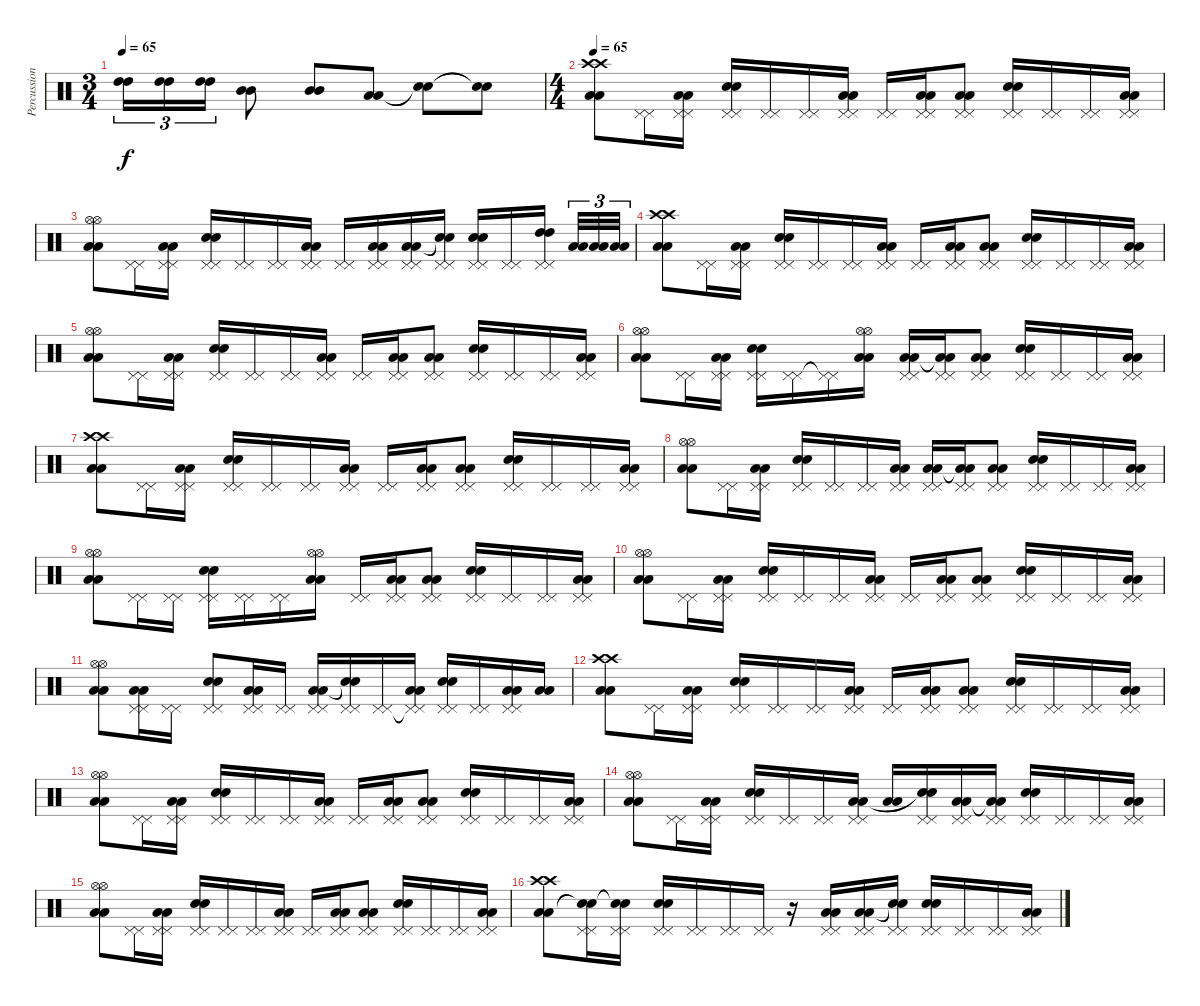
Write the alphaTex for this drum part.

\track ("Percussions" "Percussion") {instrument percussion}
\staff {score}
\articulation defaults
\ts (3 4)
\tempo 65
\tempo 130
\tempo 65
\clef neutral
\ks c
("High Tom (hit)" "High Tom (hit)").16{tu (3 2) dy f} ("High Tom (hit)" "High Tom (hit)").16{tu (3 2)} ("High Tom (hit)" "High Tom (hit)").16{tu (3 2)} ("Mid Tom (hit)" "Mid Tom (hit)").8 ("Mid Tom (hit)" "Mid Tom (hit)").8 ("Low Tom (hit)" "Low Tom (hit)").8 ("Snare (hit)"{t} "Snare (hit)"{t}).8 ("Snare (hit)"{t} "Snare (hit)"{t}).8 |
\ts (4 4)
\tempo 65
("Crash high (hit)" "Crash high (hit)" "Low Floor Tom (hit)" "Low Floor Tom (hit)").8 ("Pedal Hi-Hat (hit)" "Pedal Hi-Hat (hit)").16 ("Pedal Hi-Hat (hit)" "Pedal Hi-Hat (hit)" "Low Floor Tom (hit)" "Low Floor Tom (hit)").16 ("Pedal Hi-Hat (hit)" "Pedal Hi-Hat (hit)" "Snare (hit) 2" "Snare (hit) 2").16 ("Pedal Hi-Hat (hit)" "Pedal Hi-Hat (hit)").16 ("Pedal Hi-Hat (hit)" "Pedal Hi-Hat (hit)").16 ("Pedal Hi-Hat (hit)" "Pedal Hi-Hat (hit)" "Low Floor Tom (hit)" "Low Floor Tom (hit)").16 ("Pedal Hi-Hat (hit)" "Pedal Hi-Hat (hit)").16 ("Pedal Hi-Hat (hit)" "Pedal Hi-Hat (hit)" "Low Floor Tom (hit)" "Low Floor Tom (hit)").16 ("Pedal Hi-Hat (hit)" "Pedal Hi-Hat (hit)" "Low Floor Tom (hit)" "Low Floor Tom (hit)").8 ("Pedal Hi-Hat (hit)" "Pedal Hi-Hat (hit)" "Snare (hit) 2" "Snare (hit) 2").16 ("Pedal Hi-Hat (hit)" "Pedal Hi-Hat (hit)").16 ("Pedal Hi-Hat (hit)" "Pedal Hi-Hat (hit)").16 ("Pedal Hi-Hat (hit)" "Pedal Hi-Hat (hit)" "Low Floor Tom (hit)" "Low Floor Tom (hit)").16 |
("Hi-Hat (open)" "Hi-Hat (open)" "Low Floor Tom (hit)" "Low Floor Tom (hit)").8 ("Pedal Hi-Hat (hit)" "Pedal Hi-Hat (hit)").16 ("Pedal Hi-Hat (hit)" "Pedal Hi-Hat (hit)" "Low Floor Tom (hit)" "Low Floor Tom (hit)").16 ("Pedal Hi-Hat (hit)" "Pedal Hi-Hat (hit)" "Snare (hit) 2" "Snare (hit) 2").16 ("Pedal Hi-Hat (hit)" "Pedal Hi-Hat (hit)").16 ("Pedal Hi-Hat (hit)" "Pedal Hi-Hat (hit)").16 ("Pedal Hi-Hat (hit)" "Pedal Hi-Hat (hit)" "Low Floor Tom (hit)" "Low Floor Tom (hit)").16 ("Pedal Hi-Hat (hit)" "Pedal Hi-Hat (hit)").16 ("Pedal Hi-Hat (hit)" "Pedal Hi-Hat (hit)" "Low Floor Tom (hit)" "Low Floor Tom (hit)").16 ("Pedal Hi-Hat (hit)" "Pedal Hi-Hat (hit)" "Low Floor Tom (hit)" "Low Floor Tom (hit)").16 ("Pedal Hi-Hat (hit)" "Pedal Hi-Hat (hit)" "Snare (hit)"{t} "Snare (hit)"{t}).16 ("Pedal Hi-Hat (hit)" "Pedal Hi-Hat (hit)" "Snare (hit) 2" "Snare (hit) 2").16 ("Pedal Hi-Hat (hit)" "Pedal Hi-Hat (hit)").16 ("Pedal Hi-Hat (hit)" "Pedal Hi-Hat (hit)" "High Tom (hit)" "High Tom (hit)").16 ("Low Tom (hit)" "Low Tom (hit)").32{tu (3 2)} ("Low Tom (hit)" "Low Tom (hit)").32{tu (3 2)} ("Low Tom (hit)" "Low Tom (hit)").32{tu (3 2)} |
("Crash high (hit)" "Crash high (hit)" "Low Floor Tom (hit)" "Low Floor Tom (hit)").8 ("Pedal Hi-Hat (hit)" "Pedal Hi-Hat (hit)").16 ("Pedal Hi-Hat (hit)" "Pedal Hi-Hat (hit)" "Low Floor Tom (hit)" "Low Floor Tom (hit)").16 ("Pedal Hi-Hat (hit)" "Pedal Hi-Hat (hit)" "Snare (hit) 2" "Snare (hit) 2").16 ("Pedal Hi-Hat (hit)" "Pedal Hi-Hat (hit)").16 ("Pedal Hi-Hat (hit)" "Pedal Hi-Hat (hit)").16 ("Pedal Hi-Hat (hit)" "Pedal Hi-Hat (hit)" "Low Floor Tom (hit)" "Low Floor Tom (hit)").16 ("Pedal Hi-Hat (hit)" "Pedal Hi-Hat (hit)").16 ("Pedal Hi-Hat (hit)" "Pedal Hi-Hat (hit)" "Low Floor Tom (hit)" "Low Floor Tom (hit)").16 ("Pedal Hi-Hat (hit)" "Pedal Hi-Hat (hit)" "Low Floor Tom (hit)" "Low Floor Tom (hit)").8 ("Pedal Hi-Hat (hit)" "Pedal Hi-Hat (hit)" "Snare (hit) 2" "Snare (hit) 2").16 ("Pedal Hi-Hat (hit)" "Pedal Hi-Hat (hit)").16 ("Pedal Hi-Hat (hit)" "Pedal Hi-Hat (hit)").16 ("Pedal Hi-Hat (hit)" "Pedal Hi-Hat (hit)" "Low Floor Tom (hit)" "Low Floor Tom (hit)").16 |
("Hi-Hat (open)" "Hi-Hat (open)" "Low Floor Tom (hit)" "Low Floor Tom (hit)").8 ("Pedal Hi-Hat (hit)" "Pedal Hi-Hat (hit)").16 ("Pedal Hi-Hat (hit)" "Pedal Hi-Hat (hit)" "Low Floor Tom (hit)" "Low Floor Tom (hit)").16 ("Pedal Hi-Hat (hit)" "Pedal Hi-Hat (hit)" "Snare (hit) 2" "Snare (hit) 2").16 ("Pedal Hi-Hat (hit)" "Pedal Hi-Hat (hit)").16 ("Pedal Hi-Hat (hit)" "Pedal Hi-Hat (hit)").16 ("Pedal Hi-Hat (hit)" "Pedal Hi-Hat (hit)" "Low Floor Tom (hit)" "Low Floor Tom (hit)").16 ("Pedal Hi-Hat (hit)" "Pedal Hi-Hat (hit)").16 ("Pedal Hi-Hat (hit)" "Pedal Hi-Hat (hit)" "Low Floor Tom (hit)" "Low Floor Tom (hit)").16 ("Pedal Hi-Hat (hit)" "Pedal Hi-Hat (hit)" "Low Floor Tom (hit)" "Low Floor Tom (hit)").8 ("Pedal Hi-Hat (hit)" "Pedal Hi-Hat (hit)" "Snare (hit) 2" "Snare (hit) 2").16 ("Pedal Hi-Hat (hit)" "Pedal Hi-Hat (hit)").16 ("Pedal Hi-Hat (hit)" "Pedal Hi-Hat (hit)").16 ("Pedal Hi-Hat (hit)" "Pedal Hi-Hat (hit)" "Low Floor Tom (hit)" "Low Floor Tom (hit)").16 |
("Hi-Hat (open)" "Hi-Hat (open)" "Low Floor Tom (hit)" "Low Floor Tom (hit)").8 ("Pedal Hi-Hat (hit)" "Pedal Hi-Hat (hit)").16 ("Pedal Hi-Hat (hit)" "Pedal Hi-Hat (hit)" "Low Floor Tom (hit)" "Low Floor Tom (hit)").16 ("Pedal Hi-Hat (hit)" "Pedal Hi-Hat (hit)" "Snare (hit) 2" "Snare (hit) 2").16 ("Pedal Hi-Hat (hit)" "Pedal Hi-Hat (hit)").16 ("Pedal Hi-Hat (hit)"{t} "Pedal Hi-Hat (hit)"{t}).16 ("Hi-Hat (open)" "Hi-Hat (open)" "Low Floor Tom (hit)" "Low Floor Tom (hit)").16 ("Pedal Hi-Hat (hit)" "Pedal Hi-Hat (hit)" "Low Floor Tom (hit)" "Low Floor Tom (hit)").16 ("Pedal Hi-Hat (hit)" "Pedal Hi-Hat (hit)" "Low Floor Tom (hit)"{t} "Low Floor Tom (hit)"{t}).16 ("Pedal Hi-Hat (hit)" "Pedal Hi-Hat (hit)" "Low Floor Tom (hit)" "Low Floor Tom (hit)").8 ("Pedal Hi-Hat (hit)" "Pedal Hi-Hat (hit)" "Snare (hit) 2" "Snare (hit) 2").16 ("Pedal Hi-Hat (hit)" "Pedal Hi-Hat (hit)").16 ("Pedal Hi-Hat (hit)" "Pedal Hi-Hat (hit)").16 ("Pedal Hi-Hat (hit)" "Pedal Hi-Hat (hit)" "Low Floor Tom (hit)" "Low Floor Tom (hit)").16 |
("Crash high (hit)" "Crash high (hit)" "Low Floor Tom (hit)" "Low Floor Tom (hit)").8 ("Pedal Hi-Hat (hit)" "Pedal Hi-Hat (hit)").16 ("Pedal Hi-Hat (hit)" "Pedal Hi-Hat (hit)" "Low Floor Tom (hit)" "Low Floor Tom (hit)").16 ("Pedal Hi-Hat (hit)" "Pedal Hi-Hat (hit)" "Snare (hit) 2" "Snare (hit) 2").16 ("Pedal Hi-Hat (hit)" "Pedal Hi-Hat (hit)").16 ("Pedal Hi-Hat (hit)" "Pedal Hi-Hat (hit)").16 ("Pedal Hi-Hat (hit)" "Pedal Hi-Hat (hit)" "Low Floor Tom (hit)" "Low Floor Tom (hit)").16 ("Pedal Hi-Hat (hit)" "Pedal Hi-Hat (hit)").16 ("Pedal Hi-Hat (hit)" "Pedal Hi-Hat (hit)" "Low Floor Tom (hit)" "Low Floor Tom (hit)").16 ("Pedal Hi-Hat (hit)" "Pedal Hi-Hat (hit)" "Low Floor Tom (hit)" "Low Floor Tom (hit)").8 ("Pedal Hi-Hat (hit)" "Pedal Hi-Hat (hit)" "Snare (hit) 2" "Snare (hit) 2").16 ("Pedal Hi-Hat (hit)" "Pedal Hi-Hat (hit)").16 ("Pedal Hi-Hat (hit)" "Pedal Hi-Hat (hit)").16 ("Pedal Hi-Hat (hit)" "Pedal Hi-Hat (hit)" "Low Floor Tom (hit)" "Low Floor Tom (hit)").16 |
("Hi-Hat (open)" "Hi-Hat (open)" "Low Floor Tom (hit)" "Low Floor Tom (hit)").8 ("Pedal Hi-Hat (hit)" "Pedal Hi-Hat (hit)").16 ("Pedal Hi-Hat (hit)" "Pedal Hi-Hat (hit)" "Low Floor Tom (hit)" "Low Floor Tom (hit)").16 ("Pedal Hi-Hat (hit)" "Pedal Hi-Hat (hit)" "Snare (hit) 2" "Snare (hit) 2").16 ("Pedal Hi-Hat (hit)" "Pedal Hi-Hat (hit)").16 ("Pedal Hi-Hat (hit)" "Pedal Hi-Hat (hit)").16 ("Pedal Hi-Hat (hit)" "Pedal Hi-Hat (hit)" "Low Floor Tom (hit)" "Low Floor Tom (hit)").16 ("Pedal Hi-Hat (hit)" "Pedal Hi-Hat (hit)" "Low Floor Tom (hit)" "Low Floor Tom (hit)").16 ("Pedal Hi-Hat (hit)" "Pedal Hi-Hat (hit)" "Low Floor Tom (hit)"{t} "Low Floor Tom (hit)"{t}).16 ("Pedal Hi-Hat (hit)" "Pedal Hi-Hat (hit)" "Low Floor Tom (hit)" "Low Floor Tom (hit)").8 ("Pedal Hi-Hat (hit)" "Pedal Hi-Hat (hit)" "Snare (hit) 2" "Snare (hit) 2").16 ("Pedal Hi-Hat (hit)" "Pedal Hi-Hat (hit)").16 ("Pedal Hi-Hat (hit)" "Pedal Hi-Hat (hit)").16 ("Pedal Hi-Hat (hit)" "Pedal Hi-Hat (hit)" "Low Floor Tom (hit)" "Low Floor Tom (hit)").16 |
("Hi-Hat (open)" "Hi-Hat (open)" "Low Floor Tom (hit)" "Low Floor Tom (hit)").8 ("Pedal Hi-Hat (hit)" "Pedal Hi-Hat (hit)").16 ("Pedal Hi-Hat (hit)" "Pedal Hi-Hat (hit)").16 ("Pedal Hi-Hat (hit)" "Pedal Hi-Hat (hit)" "Snare (hit) 2" "Snare (hit) 2").16 ("Pedal Hi-Hat (hit)" "Pedal Hi-Hat (hit)").16 ("Pedal Hi-Hat (hit)" "Pedal Hi-Hat (hit)").16 ("Hi-Hat (open)" "Hi-Hat (open)" "Low Floor Tom (hit)" "Low Floor Tom (hit)").16 ("Pedal Hi-Hat (hit)" "Pedal Hi-Hat (hit)").16 ("Pedal Hi-Hat (hit)" "Pedal Hi-Hat (hit)" "Low Floor Tom (hit)" "Low Floor Tom (hit)").16 ("Pedal Hi-Hat (hit)" "Pedal Hi-Hat (hit)" "Low Floor Tom (hit)" "Low Floor Tom (hit)").8 ("Pedal Hi-Hat (hit)" "Pedal Hi-Hat (hit)" "Snare (hit) 2" "Snare (hit) 2").16 ("Pedal Hi-Hat (hit)" "Pedal Hi-Hat (hit)").16 ("Pedal Hi-Hat (hit)" "Pedal Hi-Hat (hit)").16 ("Pedal Hi-Hat (hit)" "Pedal Hi-Hat (hit)" "Low Floor Tom (hit)" "Low Floor Tom (hit)").16 |
("Hi-Hat (open)" "Hi-Hat (open)" "Low Floor Tom (hit)" "Low Floor Tom (hit)").8 ("Pedal Hi-Hat (hit)" "Pedal Hi-Hat (hit)").16 ("Pedal Hi-Hat (hit)" "Pedal Hi-Hat (hit)" "Low Floor Tom (hit)" "Low Floor Tom (hit)").16 ("Pedal Hi-Hat (hit)" "Pedal Hi-Hat (hit)" "Snare (hit) 2" "Snare (hit) 2").16 ("Pedal Hi-Hat (hit)" "Pedal Hi-Hat (hit)").16 ("Pedal Hi-Hat (hit)" "Pedal Hi-Hat (hit)").16 ("Pedal Hi-Hat (hit)" "Pedal Hi-Hat (hit)" "Low Floor Tom (hit)" "Low Floor Tom (hit)").16 ("Pedal Hi-Hat (hit)" "Pedal Hi-Hat (hit)").16 ("Pedal Hi-Hat (hit)" "Pedal Hi-Hat (hit)" "Low Floor Tom (hit)" "Low Floor Tom (hit)").16 ("Pedal Hi-Hat (hit)" "Pedal Hi-Hat (hit)" "Low Floor Tom (hit)" "Low Floor Tom (hit)").8 ("Pedal Hi-Hat (hit)" "Pedal Hi-Hat (hit)" "Snare (hit) 2" "Snare (hit) 2").16 ("Pedal Hi-Hat (hit)" "Pedal Hi-Hat (hit)").16 ("Pedal Hi-Hat (hit)" "Pedal Hi-Hat (hit)").16 ("Pedal Hi-Hat (hit)" "Pedal Hi-Hat (hit)" "Low Floor Tom (hit)" "Low Floor Tom (hit)").16 |
("Hi-Hat (open)" "Hi-Hat (open)" "Low Floor Tom (hit)" "Low Floor Tom (hit)").8 ("Pedal Hi-Hat (hit)" "Pedal Hi-Hat (hit)" "Low Floor Tom (hit)" "Low Floor Tom (hit)").16 ("Pedal Hi-Hat (hit)" "Pedal Hi-Hat (hit)").16 ("Pedal Hi-Hat (hit)" "Pedal Hi-Hat (hit)" "Snare (hit) 2" "Snare (hit) 2").8 ("Pedal Hi-Hat (hit)" "Pedal Hi-Hat (hit)" "Low Floor Tom (hit)" "Low Floor Tom (hit)").16 ("Pedal Hi-Hat (hit)" "Pedal Hi-Hat (hit)").16 ("Pedal Hi-Hat (hit)" "Pedal Hi-Hat (hit)" "Low Floor Tom (hit)" "Low Floor Tom (hit)").16 ("Pedal Hi-Hat (hit)" "Pedal Hi-Hat (hit)" "Snare (hit)"{t} "Snare (hit)"{t}).16 ("Pedal Hi-Hat (hit)" "Pedal Hi-Hat (hit)").16 ("Pedal Hi-Hat (hit)"{t} "Pedal Hi-Hat (hit)"{t} "Low Floor Tom (hit)" "Low Floor Tom (hit)").16 ("Pedal Hi-Hat (hit)" "Pedal Hi-Hat (hit)" "Snare (hit) 2" "Snare (hit) 2").16 ("Pedal Hi-Hat (hit)" "Pedal Hi-Hat (hit)").16 ("Pedal Hi-Hat (hit)" "Pedal Hi-Hat (hit)" "Low Tom (hit)" "Low Tom (hit)").16 ("Low Tom (hit)" "Low Tom (hit)").16 |
("Crash high (hit)" "Crash high (hit)" "Low Floor Tom (hit)" "Low Floor Tom (hit)").8 ("Pedal Hi-Hat (hit)" "Pedal Hi-Hat (hit)").16 ("Pedal Hi-Hat (hit)" "Pedal Hi-Hat (hit)" "Low Floor Tom (hit)" "Low Floor Tom (hit)").16 ("Pedal Hi-Hat (hit)" "Pedal Hi-Hat (hit)" "Snare (hit) 2" "Snare (hit) 2").16 ("Pedal Hi-Hat (hit)" "Pedal Hi-Hat (hit)").16 ("Pedal Hi-Hat (hit)" "Pedal Hi-Hat (hit)").16 ("Pedal Hi-Hat (hit)" "Pedal Hi-Hat (hit)" "Low Floor Tom (hit)" "Low Floor Tom (hit)").16 ("Pedal Hi-Hat (hit)" "Pedal Hi-Hat (hit)").16 ("Pedal Hi-Hat (hit)" "Pedal Hi-Hat (hit)" "Low Floor Tom (hit)" "Low Floor Tom (hit)").16 ("Pedal Hi-Hat (hit)" "Pedal Hi-Hat (hit)" "Low Floor Tom (hit)" "Low Floor Tom (hit)").8 ("Pedal Hi-Hat (hit)" "Pedal Hi-Hat (hit)" "Snare (hit) 2" "Snare (hit) 2").16 ("Pedal Hi-Hat (hit)" "Pedal Hi-Hat (hit)").16 ("Pedal Hi-Hat (hit)" "Pedal Hi-Hat (hit)").16 ("Pedal Hi-Hat (hit)" "Pedal Hi-Hat (hit)" "Low Floor Tom (hit)" "Low Floor Tom (hit)").16 |
("Hi-Hat (open)" "Hi-Hat (open)" "Low Floor Tom (hit)" "Low Floor Tom (hit)").8 ("Pedal Hi-Hat (hit)" "Pedal Hi-Hat (hit)").16 ("Pedal Hi-Hat (hit)" "Pedal Hi-Hat (hit)" "Low Floor Tom (hit)" "Low Floor Tom (hit)").16 ("Pedal Hi-Hat (hit)" "Pedal Hi-Hat (hit)" "Snare (hit) 2" "Snare (hit) 2").16 ("Pedal Hi-Hat (hit)" "Pedal Hi-Hat (hit)").16 ("Pedal Hi-Hat (hit)" "Pedal Hi-Hat (hit)").16 ("Pedal Hi-Hat (hit)" "Pedal Hi-Hat (hit)" "Low Floor Tom (hit)" "Low Floor Tom (hit)").16 ("Pedal Hi-Hat (hit)" "Pedal Hi-Hat (hit)").16 ("Pedal Hi-Hat (hit)" "Pedal Hi-Hat (hit)" "Low Floor Tom (hit)" "Low Floor Tom (hit)").16 ("Pedal Hi-Hat (hit)" "Pedal Hi-Hat (hit)" "Low Floor Tom (hit)" "Low Floor Tom (hit)").8 ("Pedal Hi-Hat (hit)" "Pedal Hi-Hat (hit)" "Snare (hit) 2" "Snare (hit) 2").16 ("Pedal Hi-Hat (hit)" "Pedal Hi-Hat (hit)").16 ("Pedal Hi-Hat (hit)" "Pedal Hi-Hat (hit)").16 ("Pedal Hi-Hat (hit)" "Pedal Hi-Hat (hit)" "Low Floor Tom (hit)" "Low Floor Tom (hit)").16 |
("Hi-Hat (open)" "Hi-Hat (open)" "Low Floor Tom (hit)" "Low Floor Tom (hit)").8 ("Pedal Hi-Hat (hit)" "Pedal Hi-Hat (hit)").16 ("Pedal Hi-Hat (hit)" "Pedal Hi-Hat (hit)" "Low Floor Tom (hit)" "Low Floor Tom (hit)").16 ("Pedal Hi-Hat (hit)" "Pedal Hi-Hat (hit)" "Snare (hit) 2" "Snare (hit) 2").16 ("Pedal Hi-Hat (hit)" "Pedal Hi-Hat (hit)").16 ("Pedal Hi-Hat (hit)" "Pedal Hi-Hat (hit)").16 ("Pedal Hi-Hat (hit)" "Pedal Hi-Hat (hit)" "Low Floor Tom (hit)" "Low Floor Tom (hit)").16 ("Low Floor Tom (hit)" "Low Floor Tom (hit)").16 ("Pedal Hi-Hat (hit)" "Pedal Hi-Hat (hit)" "Snare (hit)"{t} "Snare (hit)"{t}).16 ("Pedal Hi-Hat (hit)" "Pedal Hi-Hat (hit)" "Low Floor Tom (hit)" "Low Floor Tom (hit)").16 ("Pedal Hi-Hat (hit)" "Pedal Hi-Hat (hit)" "Low Floor Tom (hit)"{t} "Low Floor Tom (hit)"{t}).16 ("Pedal Hi-Hat (hit)" "Pedal Hi-Hat (hit)" "Snare (hit) 2" "Snare (hit) 2").16 ("Pedal Hi-Hat (hit)" "Pedal Hi-Hat (hit)").16 ("Pedal Hi-Hat (hit)" "Pedal Hi-Hat (hit)").16 ("Pedal Hi-Hat (hit)" "Pedal Hi-Hat (hit)" "Low Floor Tom (hit)" "Low Floor Tom (hit)").16 |
("Hi-Hat (open)" "Hi-Hat (open)" "Low Floor Tom (hit)" "Low Floor Tom (hit)").8 ("Pedal Hi-Hat (hit)" "Pedal Hi-Hat (hit)").16 ("Pedal Hi-Hat (hit)" "Pedal Hi-Hat (hit)" "Low Floor Tom (hit)" "Low Floor Tom (hit)").16 ("Pedal Hi-Hat (hit)" "Pedal Hi-Hat (hit)" "Snare (hit) 2" "Snare (hit) 2").16 ("Pedal Hi-Hat (hit)" "Pedal Hi-Hat (hit)").16 ("Pedal Hi-Hat (hit)" "Pedal Hi-Hat (hit)").16 ("Pedal Hi-Hat (hit)" "Pedal Hi-Hat (hit)" "Low Floor Tom (hit)" "Low Floor Tom (hit)").16 ("Pedal Hi-Hat (hit)" "Pedal Hi-Hat (hit)").16 ("Pedal Hi-Hat (hit)" "Pedal Hi-Hat (hit)" "Low Floor Tom (hit)" "Low Floor Tom (hit)").16 ("Pedal Hi-Hat (hit)" "Pedal Hi-Hat (hit)" "Low Floor Tom (hit)" "Low Floor Tom (hit)").8 ("Pedal Hi-Hat (hit)" "Pedal Hi-Hat (hit)" "Snare (hit) 2" "Snare (hit) 2").16 ("Pedal Hi-Hat (hit)" "Pedal Hi-Hat (hit)").16 ("Pedal Hi-Hat (hit)" "Pedal Hi-Hat (hit)").16 ("Pedal Hi-Hat (hit)" "Pedal Hi-Hat (hit)" "Low Floor Tom (hit)" "Low Floor Tom (hit)").16 |
("Crash high (hit)" "Crash high (hit)" "Low Floor Tom (hit)" "Low Floor Tom (hit)").8 ("Pedal Hi-Hat (hit)" "Pedal Hi-Hat (hit)" "Snare (hit)"{t} "Snare (hit)"{t}).16 ("Pedal Hi-Hat (hit)" "Pedal Hi-Hat (hit)" "Snare (hit)"{t} "Snare (hit)"{t}).16 ("Pedal Hi-Hat (hit)" "Pedal Hi-Hat (hit)" "Snare (hit) 2" "Snare (hit) 2").16 ("Pedal Hi-Hat (hit)" "Pedal Hi-Hat (hit)").16 ("Pedal Hi-Hat (hit)" "Pedal Hi-Hat (hit)").16 ("Pedal Hi-Hat (hit)" "Pedal Hi-Hat (hit)").16 r.16 ("Pedal Hi-Hat (hit)" "Pedal Hi-Hat (hit)" "Low Floor Tom (hit)" "Low Floor Tom (hit)").16 ("Pedal Hi-Hat (hit)" "Pedal Hi-Hat (hit)" "Low Floor Tom (hit)" "Low Floor Tom (hit)").16 ("Pedal Hi-Hat (hit)" "Pedal Hi-Hat (hit)" "Snare (hit)"{t} "Snare (hit)"{t}).16 ("Pedal Hi-Hat (hit)" "Pedal Hi-Hat (hit)" "Snare (hit) 2" "Snare (hit) 2").16 ("Pedal Hi-Hat (hit)" "Pedal Hi-Hat (hit)").16 ("Pedal Hi-Hat (hit)" "Pedal Hi-Hat (hit)").16 ("Pedal Hi-Hat (hit)" "Pedal Hi-Hat (hit)" "Low Floor Tom (hit)" "Low Floor Tom (hit)").16
